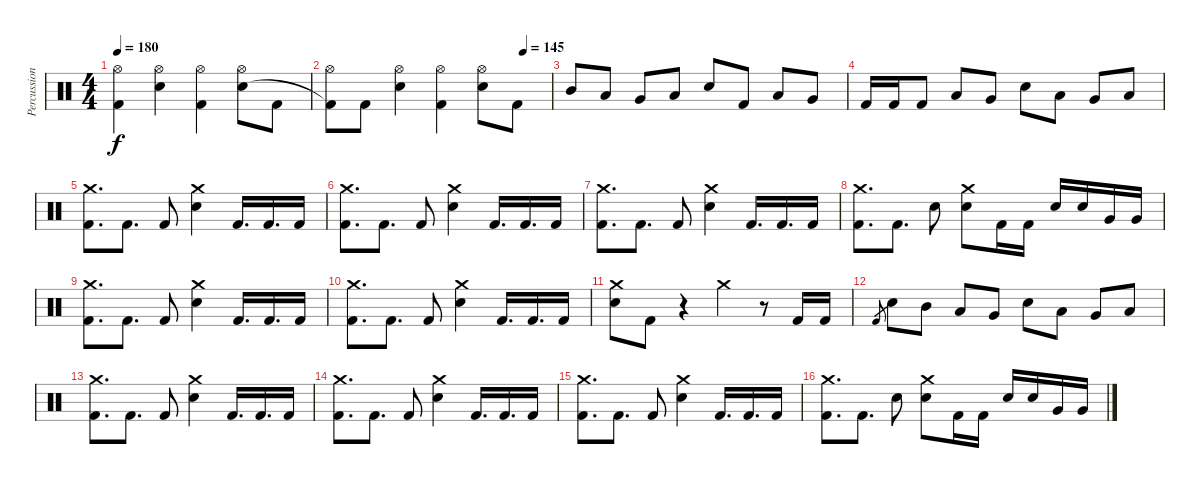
\track ("Percussions" "Percussion") {instrument percussion}
\staff {score}
\articulation defaults
\ts (4 4)
\tempo 180
\clef neutral
\ks c
("Hi-Hat (open)" "Kick (hit) 2").4{dy f} ("Hi-Hat (open)" "Electric Snare (hit)").4 ("Hi-Hat (open)" "Kick (hit) 2").4 ("Hi-Hat (open)" "Electric Snare (hit)").8 "Kick (hit) 2".8 |
\tempo (145 0.875)
("Hi-Hat (open)" "Kick (hit) 2"{t}).8 "Kick (hit) 2".8 ("Hi-Hat (open)" "Electric Snare (hit)").4 ("Hi-Hat (open)" "Kick (hit) 2").4 ("Hi-Hat (open)" "Electric Snare (hit)").8 "Kick (hit) 2".8 |
"Mid Tom (hit)".8 "Low Tom (hit)".8 "Very Low Tom (hit)".8 "Low Floor Tom (hit)".8 "Electric Snare (hit)".8 "Kick (hit) 2".8 "Low Tom (hit)".8 "Very Low Tom (hit)".8 |
"Kick (hit) 2".16 "Kick (hit) 2".16 "Kick (hit) 2".8 "Low Tom (hit)".8 "Very Low Tom (hit)".8 "Electric Snare (hit)".8 "Low Tom (hit)".8 "Very Low Tom (hit)".8 "Low Floor Tom (hit)".8 |
("Crash medium (hit)" "Kick (hit) 2").8{d} "Kick (hit) 2".8{d} "Kick (hit) 2".8 ("Crash medium (hit)" "Electric Snare (hit)").4 "Kick (hit) 2".16{d} "Kick (hit) 2".16{d} "Kick (hit) 2".16 |
("Crash medium (hit)" "Kick (hit) 2").8{d} "Kick (hit) 2".8{d} "Kick (hit) 2".8 ("Crash medium (hit)" "Electric Snare (hit)").4 "Kick (hit) 2".16{d} "Kick (hit) 2".16{d} "Kick (hit) 2".16 |
("Crash medium (hit)" "Kick (hit) 2").8{d} "Kick (hit) 2".8{d} "Kick (hit) 2".8 ("Crash medium (hit)" "Electric Snare (hit)").4 "Kick (hit) 2".16{d} "Kick (hit) 2".16{d} "Kick (hit) 2".16 |
("Crash medium (hit)" "Kick (hit) 2").8{d} "Kick (hit) 2".8{d} "Electric Snare (hit)".8 ("Crash medium (hit)" "Electric Snare (hit)").8 "Kick (hit) 2".16 "Kick (hit) 2".16 "Electric Snare (hit)".16 "Electric Snare (hit)".16 "Very Low Tom (hit)".16 "Very Low Tom (hit)".16 |
("Crash medium (hit)" "Kick (hit) 2").8{d} "Kick (hit) 2".8{d} "Kick (hit) 2".8 ("Crash medium (hit)" "Electric Snare (hit)").4 "Kick (hit) 2".16{d} "Kick (hit) 2".16{d} "Kick (hit) 2".16 |
("Crash medium (hit)" "Kick (hit) 2").8{d} "Kick (hit) 2".8{d} "Kick (hit) 2".8 ("Crash medium (hit)" "Electric Snare (hit)").4 "Kick (hit) 2".16{d} "Kick (hit) 2".16{d} "Kick (hit) 2".16 |
("Crash medium (hit)" "Electric Snare (hit)").8 "Kick (hit) 2".8 r.4 "Crash medium (hit)".4 r.8 "Kick (hit) 2".16 "Kick (hit) 2".16 |
"Kick (hit) 2".8{gr} "Electric Snare (hit)".8 "Mid Tom (hit)".8 "Low Tom (hit)".8 "Very Low Tom (hit)".8 "Electric Snare (hit)".8 "Low Tom (hit)".8 "Very Low Tom (hit)".8 "Low Floor Tom (hit)".8 |
("Crash medium (hit)" "Kick (hit) 2").8{d} "Kick (hit) 2".8{d} "Kick (hit) 2".8 ("Crash medium (hit)" "Electric Snare (hit)").4 "Kick (hit) 2".16{d} "Kick (hit) 2".16{d} "Kick (hit) 2".16 |
("Crash medium (hit)" "Kick (hit) 2").8{d} "Kick (hit) 2".8{d} "Kick (hit) 2".8 ("Crash medium (hit)" "Electric Snare (hit)").4 "Kick (hit) 2".16{d} "Kick (hit) 2".16{d} "Kick (hit) 2".16 |
("Crash medium (hit)" "Kick (hit) 2").8{d} "Kick (hit) 2".8{d} "Kick (hit) 2".8 ("Crash medium (hit)" "Electric Snare (hit)").4 "Kick (hit) 2".16{d} "Kick (hit) 2".16{d} "Kick (hit) 2".16 |
("Crash medium (hit)" "Kick (hit) 2").8{d} "Kick (hit) 2".8{d} "Electric Snare (hit)".8 ("Crash medium (hit)" "Electric Snare (hit)").8 "Kick (hit) 2".16 "Kick (hit) 2".16 "Electric Snare (hit)".16 "Electric Snare (hit)".16 "Very Low Tom (hit)".16 "Very Low Tom (hit)".16
